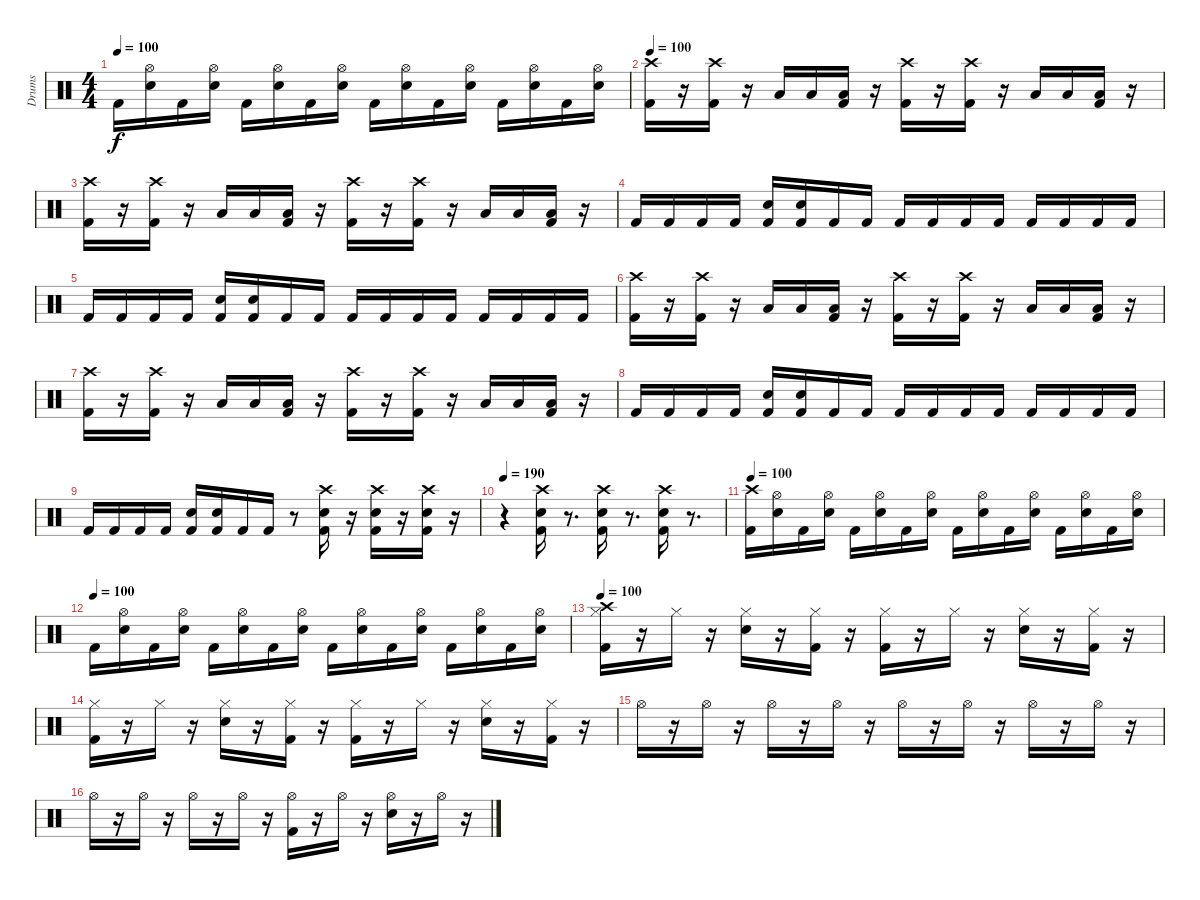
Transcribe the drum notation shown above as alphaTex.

\track ("Drums               " "Drums     ") {instrument percussion}
\staff {score}
\articulation defaults
\ts (4 4)
\tempo 100
\clef neutral
\ks c "Kick (hit) 2".16{dy f}
("Snare (hit) 2" "Hi-Hat (open)").16 "Kick (hit) 2".16 ("Snare (hit) 2" "Hi-Hat (open)").16 "Kick (hit) 2".16 ("Snare (hit) 2" "Hi-Hat (open)").16 "Kick (hit) 2".16 ("Snare (hit) 2" "Hi-Hat (open)").16 "Kick (hit) 2".16 ("Snare (hit) 2" "Hi-Hat (open)").16 "Kick (hit) 2".16 ("Snare (hit) 2" "Hi-Hat (open)").16 "Kick (hit) 2".16 ("Snare (hit) 2" "Hi-Hat (open)").16 "Kick (hit) 2".16 ("Snare (hit) 2" "Hi-Hat (open)").16 |
\tempo 100
("Kick (hit) 2" "Crash high (hit)").16 r.16 ("Kick (hit) 2" "Crash high (hit)").16 r.16 "Low Tom (hit)".16 "Low Tom (hit)".16 ("Kick (hit) 2" "Low Tom (hit)").16 r.16 ("Kick (hit) 2" "Crash high (hit)").16 r.16 ("Kick (hit) 2" "Crash high (hit)").16 r.16 "Low Tom (hit)".16 "Low Tom (hit)".16 ("Kick (hit) 2" "Low Tom (hit)").16 r.16 |
("Kick (hit) 2" "Crash high (hit)").16 r.16 ("Kick (hit) 2" "Crash high (hit)").16 r.16 "Low Tom (hit)".16 "Low Tom (hit)".16 ("Kick (hit) 2" "Low Tom (hit)").16 r.16 ("Kick (hit) 2" "Crash high (hit)").16 r.16 ("Kick (hit) 2" "Crash high (hit)").16 r.16 "Low Tom (hit)".16 "Low Tom (hit)".16 ("Kick (hit) 2" "Low Tom (hit)").16 r.16 |
"Kick (hit) 2".16 "Kick (hit) 2".16 "Kick (hit) 2".16 "Kick (hit) 2".16 ("Kick (hit) 2" "Snare (hit) 2").16 ("Kick (hit) 2" "Snare (hit) 2").16 "Kick (hit) 2".16 "Kick (hit) 2".16 "Kick (hit) 2".16 "Kick (hit) 2".16 "Kick (hit) 2".16 "Kick (hit) 2".16 "Kick (hit) 2".16 "Kick (hit) 2".16 "Kick (hit) 2".16 "Kick (hit) 2".16 |
"Kick (hit) 2".16 "Kick (hit) 2".16 "Kick (hit) 2".16 "Kick (hit) 2".16 ("Kick (hit) 2" "Snare (hit) 2").16 ("Kick (hit) 2" "Snare (hit) 2").16 "Kick (hit) 2".16 "Kick (hit) 2".16 "Kick (hit) 2".16 "Kick (hit) 2".16 "Kick (hit) 2".16 "Kick (hit) 2".16 "Kick (hit) 2".16 "Kick (hit) 2".16 "Kick (hit) 2".16 "Kick (hit) 2".16 |
("Kick (hit) 2" "Crash high (hit)").16 r.16 ("Kick (hit) 2" "Crash high (hit)").16 r.16 "Low Tom (hit)".16 "Low Tom (hit)".16 ("Kick (hit) 2" "Low Tom (hit)").16 r.16 ("Kick (hit) 2" "Crash high (hit)").16 r.16 ("Kick (hit) 2" "Crash high (hit)").16 r.16 "Low Tom (hit)".16 "Low Tom (hit)".16 ("Kick (hit) 2" "Low Tom (hit)").16 r.16 |
("Kick (hit) 2" "Crash high (hit)").16 r.16 ("Kick (hit) 2" "Crash high (hit)").16 r.16 "Low Tom (hit)".16 "Low Tom (hit)".16 ("Kick (hit) 2" "Low Tom (hit)").16 r.16 ("Kick (hit) 2" "Crash high (hit)").16 r.16 ("Kick (hit) 2" "Crash high (hit)").16 r.16 "Low Tom (hit)".16 "Low Tom (hit)".16 ("Kick (hit) 2" "Low Tom (hit)").16 r.16 |
"Kick (hit) 2".16 "Kick (hit) 2".16 "Kick (hit) 2".16 "Kick (hit) 2".16 ("Kick (hit) 2" "Snare (hit) 2").16 ("Kick (hit) 2" "Snare (hit) 2").16 "Kick (hit) 2".16 "Kick (hit) 2".16 "Kick (hit) 2".16 "Kick (hit) 2".16 "Kick (hit) 2".16 "Kick (hit) 2".16 "Kick (hit) 2".16 "Kick (hit) 2".16 "Kick (hit) 2".16 "Kick (hit) 2".16 |
"Kick (hit) 2".16 "Kick (hit) 2".16 "Kick (hit) 2".16 "Kick (hit) 2".16 ("Kick (hit) 2" "Snare (hit) 2").16 ("Kick (hit) 2" "Snare (hit) 2").16 "Kick (hit) 2".16 "Kick (hit) 2".16 r.8 ("Kick (hit) 2" "Snare (hit) 2" "Crash high (hit)").16 r.16 ("Kick (hit) 2" "Snare (hit) 2" "Crash high (hit)").16 r.16 ("Kick (hit) 2" "Snare (hit) 2" "Crash high (hit)").16 r.16 |
\tempo 190
r.4 ("Kick (hit) 2" "Snare (hit) 2" "Crash high (hit)").16 r.8{d} ("Kick (hit) 2" "Snare (hit) 2" "Crash high (hit)").16 r.8{d} ("Kick (hit) 2" "Snare (hit) 2" "Crash high (hit)").16 r.8{d} |
\tempo 100
("Kick (hit) 2" "Crash high (hit)").16 ("Snare (hit) 2" "Hi-Hat (open)").16 "Kick (hit) 2".16 ("Snare (hit) 2" "Hi-Hat (open)").16 "Kick (hit) 2".16 ("Snare (hit) 2" "Hi-Hat (open)").16 "Kick (hit) 2".16 ("Snare (hit) 2" "Hi-Hat (open)").16 "Kick (hit) 2".16 ("Snare (hit) 2" "Hi-Hat (open)").16 "Kick (hit) 2".16 ("Snare (hit) 2" "Hi-Hat (open)").16 "Kick (hit) 2".16 ("Snare (hit) 2" "Hi-Hat (open)").16 "Kick (hit) 2".16 ("Snare (hit) 2" "Hi-Hat (open)").16 |
\tempo (100)
"Kick (hit) 2".16 ("Snare (hit) 2" "Hi-Hat (open)").16 "Kick (hit) 2".16 ("Snare (hit) 2" "Hi-Hat (open)").16 "Kick (hit) 2".16 ("Snare (hit) 2" "Hi-Hat (open)").16 "Kick (hit) 2".16 ("Snare (hit) 2" "Hi-Hat (open)").16 "Kick (hit) 2".16 ("Snare (hit) 2" "Hi-Hat (open)").16 "Kick (hit) 2".16 ("Snare (hit) 2" "Hi-Hat (open)").16 "Kick (hit) 2".16 ("Snare (hit) 2" "Hi-Hat (open)").16 "Kick (hit) 2".16 ("Snare (hit) 2" "Hi-Hat (open)").16 |
\tempo 100
("Kick (hit) 2" "Hi-Hat (closed)" "Crash high (hit)").16 r.16 "Hi-Hat (closed)".16 r.16 ("Snare (hit) 2" "Hi-Hat (closed)").16 r.16 ("Kick (hit) 2" "Hi-Hat (closed)").16 r.16 ("Kick (hit) 2" "Hi-Hat (closed)").16 r.16 "Hi-Hat (closed)".16 r.16 ("Snare (hit) 2" "Hi-Hat (closed)").16 r.16 ("Kick (hit) 2" "Hi-Hat (closed)").16 r.16 |
("Kick (hit) 2" "Hi-Hat (closed)").16 r.16 "Hi-Hat (closed)".16 r.16 ("Snare (hit) 2" "Hi-Hat (closed)").16 r.16 ("Kick (hit) 2" "Hi-Hat (closed)").16 r.16 ("Kick (hit) 2" "Hi-Hat (closed)").16 r.16 "Hi-Hat (closed)".16 r.16 ("Snare (hit) 2" "Hi-Hat (closed)").16 r.16 ("Kick (hit) 2" "Hi-Hat (closed)").16 r.16 |
"Hi-Hat (open)".16 r.16 "Hi-Hat (open)".16 r.16 "Hi-Hat (open)".16 r.16 "Hi-Hat (open)".16 r.16 "Hi-Hat (open)".16 r.16 "Hi-Hat (open)".16 r.16 "Hi-Hat (open)".16 r.16 "Hi-Hat (open)".16 r.16 |
"Hi-Hat (open)".16 r.16 "Hi-Hat (open)".16 r.16 "Hi-Hat (open)".16 r.16 "Hi-Hat (open)".16 r.16 ("Kick (hit) 2" "Hi-Hat (open)").16 r.16 "Hi-Hat (open)".16 r.16 ("Snare (hit) 2" "Hi-Hat (open)").16 r.16 "Hi-Hat (open)".16 r.16
